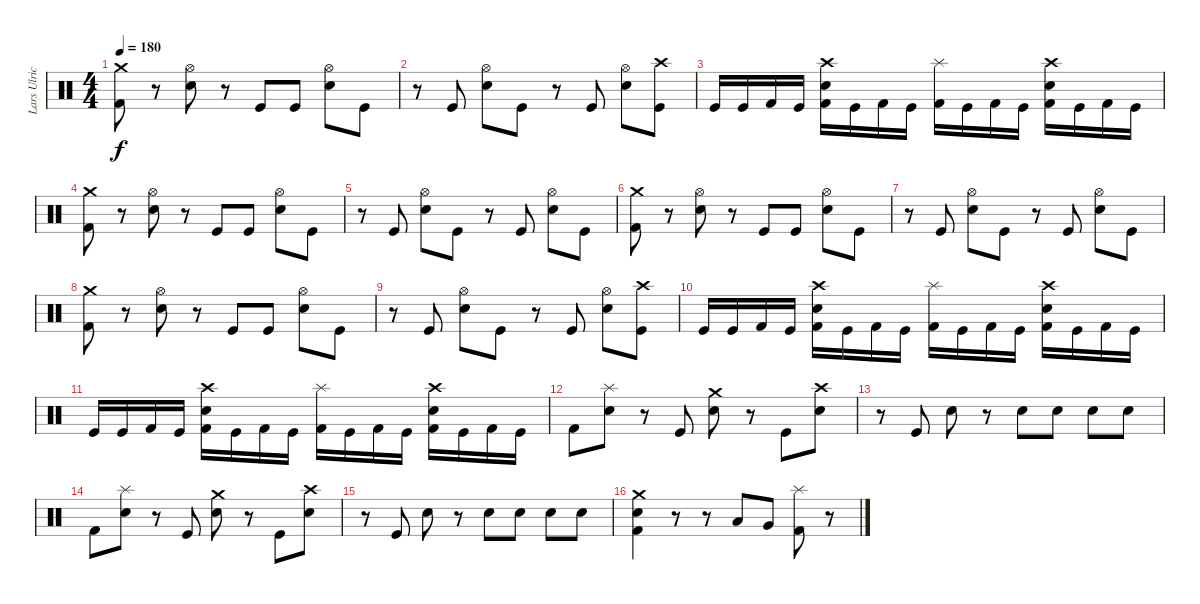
\track ("Lars Ulrich" "Lars Ulric") {instrument percussion}
\staff {score}
\articulation defaults
\ts (4 4)
\tempo 180
\clef neutral
\ks c
("Crash medium (hit)" "Kick (hit) 2").8{dy f} r.8 ("Hi-Hat (open)" "Electric Snare (hit)").8 r.8 "Kick (hit)".8 "Kick (hit)".8 ("Hi-Hat (open)" "Electric Snare (hit)").8 "Kick (hit)".8 |
r.8 "Kick (hit)".8 ("Hi-Hat (open)" "Electric Snare (hit)").8 "Kick (hit)".8 r.8 "Kick (hit)".8 ("Hi-Hat (open)" "Electric Snare (hit)").8 ("Crash high (hit)" "Kick (hit)").8 |
"Kick (hit)".16 "Kick (hit)".16 "Kick (hit) 2".16 "Kick (hit)".16 ("Crash high (hit)" "Electric Snare (hit)" "Kick (hit) 2").16 "Kick (hit)".16 "Kick (hit) 2".16 "Kick (hit)".16 ("Splash (hit)" "Kick (hit) 2").16 "Kick (hit)".16 "Kick (hit) 2".16 "Kick (hit)".16 ("Crash high (hit)" "Electric Snare (hit)" "Kick (hit) 2").16 "Kick (hit)".16 "Kick (hit) 2".16 "Kick (hit)".16 |
("Crash medium (hit)" "Kick (hit) 2").8 r.8 ("Hi-Hat (open)" "Electric Snare (hit)").8 r.8 "Kick (hit)".8 "Kick (hit)".8 ("Hi-Hat (open)" "Electric Snare (hit)").8 "Kick (hit)".8 |
r.8 "Kick (hit)".8 ("Hi-Hat (open)" "Electric Snare (hit)").8 "Kick (hit)".8 r.8 "Kick (hit)".8 ("Hi-Hat (open)" "Electric Snare (hit)").8 "Kick (hit)".8 |
("Crash medium (hit)" "Kick (hit) 2").8 r.8 ("Hi-Hat (open)" "Electric Snare (hit)").8 r.8 "Kick (hit)".8 "Kick (hit)".8 ("Hi-Hat (open)" "Electric Snare (hit)").8 "Kick (hit)".8 |
r.8 "Kick (hit)".8 ("Hi-Hat (open)" "Electric Snare (hit)").8 "Kick (hit)".8 r.8 "Kick (hit)".8 ("Hi-Hat (open)" "Electric Snare (hit)").8 "Kick (hit)".8 |
("Crash medium (hit)" "Kick (hit) 2").8 r.8 ("Hi-Hat (open)" "Electric Snare (hit)").8 r.8 "Kick (hit)".8 "Kick (hit)".8 ("Hi-Hat (open)" "Electric Snare (hit)").8 "Kick (hit)".8 |
r.8 "Kick (hit)".8 ("Hi-Hat (open)" "Electric Snare (hit)").8 "Kick (hit)".8 r.8 "Kick (hit)".8 ("Hi-Hat (open)" "Electric Snare (hit)").8 ("Crash high (hit)" "Kick (hit)").8 |
"Kick (hit)".16 "Kick (hit)".16 "Kick (hit) 2".16 "Kick (hit)".16 ("Crash high (hit)" "Electric Snare (hit)" "Kick (hit) 2").16 "Kick (hit)".16 "Kick (hit) 2".16 "Kick (hit)".16 ("Splash (hit)" "Kick (hit) 2").16 "Kick (hit)".16 "Kick (hit) 2".16 "Kick (hit)".16 ("Crash high (hit)" "Electric Snare (hit)" "Kick (hit) 2").16 "Kick (hit)".16 "Kick (hit) 2".16 "Kick (hit)".16 |
"Kick (hit)".16 "Kick (hit)".16 "Kick (hit) 2".16 "Kick (hit)".16 ("Crash high (hit)" "Electric Snare (hit)" "Kick (hit) 2").16 "Kick (hit)".16 "Kick (hit) 2".16 "Kick (hit)".16 ("Splash (hit)" "Kick (hit) 2").16 "Kick (hit)".16 "Kick (hit) 2".16 "Kick (hit)".16 ("Crash high (hit)" "Electric Snare (hit)" "Kick (hit) 2").16 "Kick (hit)".16 "Kick (hit) 2".16 "Kick (hit)".16 |
"Kick (hit) 2".8 ("Splash (hit)" "Electric Snare (hit)").8 r.8 "Kick (hit)".8 ("Crash medium (hit)" "Electric Snare (hit)").8 r.8 "Kick (hit)".8 ("Crash high (hit)" "Electric Snare (hit)").8 |
r.8 "Kick (hit)".8 "Electric Snare (hit)".8 r.8 "Electric Snare (hit)".8 "Electric Snare (hit)".8 "Electric Snare (hit)".8 "Electric Snare (hit)".8 |
"Kick (hit) 2".8 ("Splash (hit)" "Electric Snare (hit)").8 r.8 "Kick (hit)".8 ("Crash medium (hit)" "Electric Snare (hit)").8 r.8 "Kick (hit)".8 ("Crash high (hit)" "Electric Snare (hit)").8 |
r.8 "Kick (hit)".8 "Electric Snare (hit)".8 r.8 "Electric Snare (hit)".8 "Electric Snare (hit)".8 "Electric Snare (hit)".8 "Electric Snare (hit)".8 |
("Crash medium (hit)" "Electric Snare (hit)" "Kick (hit) 2").4 r.8 r.8 "Low Tom (hit)".8 "Very Low Tom (hit)".8 ("Splash (hit)" "Kick (hit) 2").8 r.8
